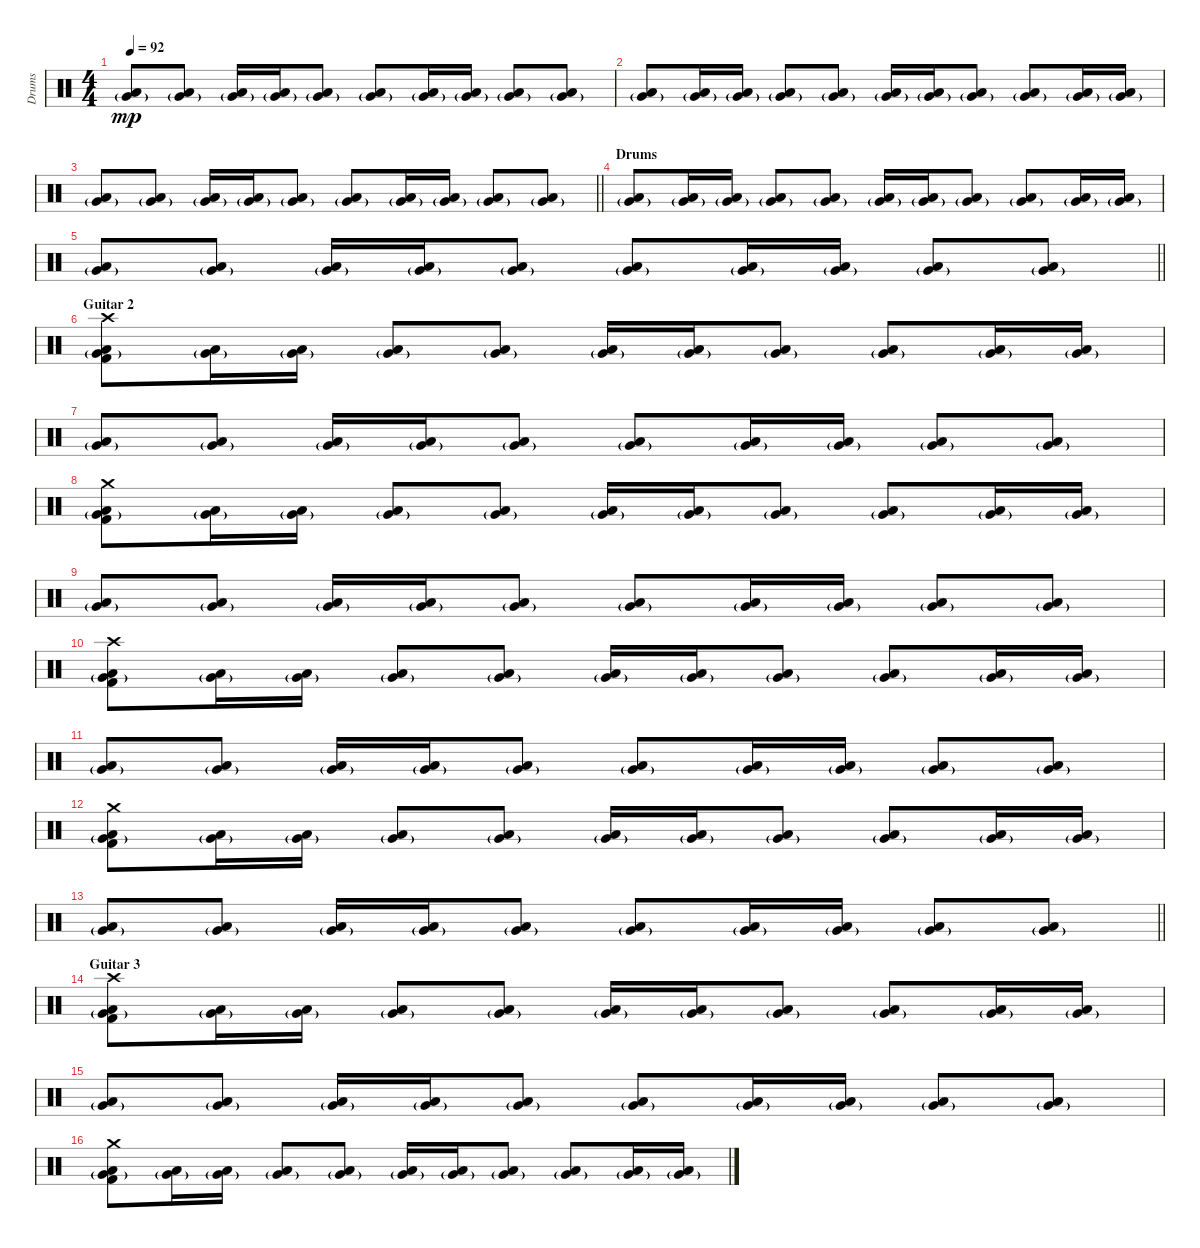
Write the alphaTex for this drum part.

\track ("Drums" "Drums") {instrument percussion}
\staff {score}
\articulation defaults
\ts (4 4)
\tempo 92
\clef neutral
\ks c
("Very Low Tom (hit)"{g} "Low Floor Tom (hit)").8{dy mp} ("Very Low Tom (hit)"{g} "Low Floor Tom (hit)").8 ("Very Low Tom (hit)"{g} "Low Floor Tom (hit)").16 ("Very Low Tom (hit)"{g} "Low Floor Tom (hit)").16 ("Very Low Tom (hit)"{g} "Low Floor Tom (hit)").8 ("Very Low Tom (hit)"{g} "Low Floor Tom (hit)").8 ("Very Low Tom (hit)"{g} "Low Floor Tom (hit)").16 ("Very Low Tom (hit)"{g} "Low Floor Tom (hit)").16 ("Very Low Tom (hit)"{g} "Low Floor Tom (hit)").8 ("Very Low Tom (hit)"{g} "Low Floor Tom (hit)").8 |
("Very Low Tom (hit)"{g} "Low Floor Tom (hit)").8 ("Very Low Tom (hit)"{g} "Low Floor Tom (hit)").16 ("Very Low Tom (hit)"{g} "Low Floor Tom (hit)").16 ("Very Low Tom (hit)"{g} "Low Floor Tom (hit)").8 ("Very Low Tom (hit)"{g} "Low Floor Tom (hit)").8 ("Very Low Tom (hit)"{g} "Low Floor Tom (hit)").16 ("Very Low Tom (hit)"{g} "Low Floor Tom (hit)").16 ("Very Low Tom (hit)"{g} "Low Floor Tom (hit)").8 ("Very Low Tom (hit)"{g} "Low Floor Tom (hit)").8 ("Very Low Tom (hit)"{g} "Low Floor Tom (hit)").16 ("Very Low Tom (hit)"{g} "Low Floor Tom (hit)").16 |
\barLineRight lightlight
("Very Low Tom (hit)"{g} "Low Floor Tom (hit)").8 ("Very Low Tom (hit)"{g} "Low Floor Tom (hit)").8 ("Very Low Tom (hit)"{g} "Low Floor Tom (hit)").16 ("Very Low Tom (hit)"{g} "Low Floor Tom (hit)").16 ("Very Low Tom (hit)"{g} "Low Floor Tom (hit)").8 ("Very Low Tom (hit)"{g} "Low Floor Tom (hit)").8 ("Very Low Tom (hit)"{g} "Low Floor Tom (hit)").16 ("Very Low Tom (hit)"{g} "Low Floor Tom (hit)").16 ("Very Low Tom (hit)"{g} "Low Floor Tom (hit)").8 ("Very Low Tom (hit)"{g} "Low Floor Tom (hit)").8 |
\section ("" "Drums")
("Very Low Tom (hit)"{g} "Low Floor Tom (hit)").8 ("Very Low Tom (hit)"{g} "Low Floor Tom (hit)").16 ("Very Low Tom (hit)"{g} "Low Floor Tom (hit)").16 ("Very Low Tom (hit)"{g} "Low Floor Tom (hit)").8 ("Very Low Tom (hit)"{g} "Low Floor Tom (hit)").8 ("Very Low Tom (hit)"{g} "Low Floor Tom (hit)").16 ("Very Low Tom (hit)"{g} "Low Floor Tom (hit)").16 ("Very Low Tom (hit)"{g} "Low Floor Tom (hit)").8 ("Very Low Tom (hit)"{g} "Low Floor Tom (hit)").8 ("Very Low Tom (hit)"{g} "Low Floor Tom (hit)").16 ("Very Low Tom (hit)"{g} "Low Floor Tom (hit)").16 |
\barLineRight lightlight
("Very Low Tom (hit)"{g} "Low Floor Tom (hit)").8 ("Very Low Tom (hit)"{g} "Low Floor Tom (hit)").8 ("Very Low Tom (hit)"{g} "Low Floor Tom (hit)").16 ("Very Low Tom (hit)"{g} "Low Floor Tom (hit)").16 ("Very Low Tom (hit)"{g} "Low Floor Tom (hit)").8 ("Very Low Tom (hit)"{g} "Low Floor Tom (hit)").8 ("Very Low Tom (hit)"{g} "Low Floor Tom (hit)").16 ("Very Low Tom (hit)"{g} "Low Floor Tom (hit)").16 ("Very Low Tom (hit)"{g} "Low Floor Tom (hit)").8 ("Very Low Tom (hit)"{g} "Low Floor Tom (hit)").8 |
\section ("" "Guitar 2")
("Kick (hit) 2" "Crash high (hit)" "Very Low Tom (hit)"{g} "Low Floor Tom (hit)").8 ("Very Low Tom (hit)"{g} "Low Floor Tom (hit)").16 ("Very Low Tom (hit)"{g} "Low Floor Tom (hit)").16 ("Very Low Tom (hit)"{g} "Low Floor Tom (hit)").8 ("Very Low Tom (hit)"{g} "Low Floor Tom (hit)").8 ("Very Low Tom (hit)"{g} "Low Floor Tom (hit)").16 ("Very Low Tom (hit)"{g} "Low Floor Tom (hit)").16 ("Very Low Tom (hit)"{g} "Low Floor Tom (hit)").8 ("Very Low Tom (hit)"{g} "Low Floor Tom (hit)").8 ("Very Low Tom (hit)"{g} "Low Floor Tom (hit)").16 ("Very Low Tom (hit)"{g} "Low Floor Tom (hit)").16 |
("Very Low Tom (hit)"{g} "Low Floor Tom (hit)").8 ("Very Low Tom (hit)"{g} "Low Floor Tom (hit)").8 ("Very Low Tom (hit)"{g} "Low Floor Tom (hit)").16 ("Very Low Tom (hit)"{g} "Low Floor Tom (hit)").16 ("Very Low Tom (hit)"{g} "Low Floor Tom (hit)").8 ("Very Low Tom (hit)"{g} "Low Floor Tom (hit)").8 ("Very Low Tom (hit)"{g} "Low Floor Tom (hit)").16 ("Very Low Tom (hit)"{g} "Low Floor Tom (hit)").16 ("Very Low Tom (hit)"{g} "Low Floor Tom (hit)").8 ("Very Low Tom (hit)"{g} "Low Floor Tom (hit)").8 |
("Kick (hit) 2" "Crash medium (hit)" "Very Low Tom (hit)"{g} "Low Floor Tom (hit)").8 ("Very Low Tom (hit)"{g} "Low Floor Tom (hit)").16 ("Very Low Tom (hit)"{g} "Low Floor Tom (hit)").16 ("Very Low Tom (hit)"{g} "Low Floor Tom (hit)").8 ("Very Low Tom (hit)"{g} "Low Floor Tom (hit)").8 ("Very Low Tom (hit)"{g} "Low Floor Tom (hit)").16 ("Very Low Tom (hit)"{g} "Low Floor Tom (hit)").16 ("Very Low Tom (hit)"{g} "Low Floor Tom (hit)").8 ("Very Low Tom (hit)"{g} "Low Floor Tom (hit)").8 ("Very Low Tom (hit)"{g} "Low Floor Tom (hit)").16 ("Very Low Tom (hit)"{g} "Low Floor Tom (hit)").16 |
("Very Low Tom (hit)"{g} "Low Floor Tom (hit)").8 ("Very Low Tom (hit)"{g} "Low Floor Tom (hit)").8 ("Very Low Tom (hit)"{g} "Low Floor Tom (hit)").16 ("Very Low Tom (hit)"{g} "Low Floor Tom (hit)").16 ("Very Low Tom (hit)"{g} "Low Floor Tom (hit)").8 ("Very Low Tom (hit)"{g} "Low Floor Tom (hit)").8 ("Very Low Tom (hit)"{g} "Low Floor Tom (hit)").16 ("Very Low Tom (hit)"{g} "Low Floor Tom (hit)").16 ("Very Low Tom (hit)"{g} "Low Floor Tom (hit)").8 ("Very Low Tom (hit)"{g} "Low Floor Tom (hit)").8 |
("Kick (hit) 2" "Crash high (hit)" "Very Low Tom (hit)"{g} "Low Floor Tom (hit)").8 ("Very Low Tom (hit)"{g} "Low Floor Tom (hit)").16 ("Very Low Tom (hit)"{g} "Low Floor Tom (hit)").16 ("Very Low Tom (hit)"{g} "Low Floor Tom (hit)").8 ("Very Low Tom (hit)"{g} "Low Floor Tom (hit)").8 ("Very Low Tom (hit)"{g} "Low Floor Tom (hit)").16 ("Very Low Tom (hit)"{g} "Low Floor Tom (hit)").16 ("Very Low Tom (hit)"{g} "Low Floor Tom (hit)").8 ("Very Low Tom (hit)"{g} "Low Floor Tom (hit)").8 ("Very Low Tom (hit)"{g} "Low Floor Tom (hit)").16 ("Very Low Tom (hit)"{g} "Low Floor Tom (hit)").16 |
("Very Low Tom (hit)"{g} "Low Floor Tom (hit)").8 ("Very Low Tom (hit)"{g} "Low Floor Tom (hit)").8 ("Very Low Tom (hit)"{g} "Low Floor Tom (hit)").16 ("Very Low Tom (hit)"{g} "Low Floor Tom (hit)").16 ("Very Low Tom (hit)"{g} "Low Floor Tom (hit)").8 ("Very Low Tom (hit)"{g} "Low Floor Tom (hit)").8 ("Very Low Tom (hit)"{g} "Low Floor Tom (hit)").16 ("Very Low Tom (hit)"{g} "Low Floor Tom (hit)").16 ("Very Low Tom (hit)"{g} "Low Floor Tom (hit)").8 ("Very Low Tom (hit)"{g} "Low Floor Tom (hit)").8 |
("Kick (hit) 2" "Crash medium (hit)" "Very Low Tom (hit)"{g} "Low Floor Tom (hit)").8 ("Very Low Tom (hit)"{g} "Low Floor Tom (hit)").16 ("Very Low Tom (hit)"{g} "Low Floor Tom (hit)").16 ("Very Low Tom (hit)"{g} "Low Floor Tom (hit)").8 ("Very Low Tom (hit)"{g} "Low Floor Tom (hit)").8 ("Very Low Tom (hit)"{g} "Low Floor Tom (hit)").16 ("Very Low Tom (hit)"{g} "Low Floor Tom (hit)").16 ("Very Low Tom (hit)"{g} "Low Floor Tom (hit)").8 ("Very Low Tom (hit)"{g} "Low Floor Tom (hit)").8 ("Very Low Tom (hit)"{g} "Low Floor Tom (hit)").16 ("Very Low Tom (hit)"{g} "Low Floor Tom (hit)").16 |
\barLineRight lightlight
("Very Low Tom (hit)"{g} "Low Floor Tom (hit)").8 ("Very Low Tom (hit)"{g} "Low Floor Tom (hit)").8 ("Very Low Tom (hit)"{g} "Low Floor Tom (hit)").16 ("Very Low Tom (hit)"{g} "Low Floor Tom (hit)").16 ("Very Low Tom (hit)"{g} "Low Floor Tom (hit)").8 ("Very Low Tom (hit)"{g} "Low Floor Tom (hit)").8 ("Very Low Tom (hit)"{g} "Low Floor Tom (hit)").16 ("Very Low Tom (hit)"{g} "Low Floor Tom (hit)").16 ("Very Low Tom (hit)"{g} "Low Floor Tom (hit)").8 ("Very Low Tom (hit)"{g} "Low Floor Tom (hit)").8 |
\section ("" "Guitar 3")
("Kick (hit) 2" "Crash high (hit)" "Very Low Tom (hit)"{g} "Low Floor Tom (hit)").8 ("Very Low Tom (hit)"{g} "Low Floor Tom (hit)").16 ("Very Low Tom (hit)"{g} "Low Floor Tom (hit)").16 ("Very Low Tom (hit)"{g} "Low Floor Tom (hit)").8 ("Very Low Tom (hit)"{g} "Low Floor Tom (hit)").8 ("Very Low Tom (hit)"{g} "Low Floor Tom (hit)").16 ("Very Low Tom (hit)"{g} "Low Floor Tom (hit)").16 ("Very Low Tom (hit)"{g} "Low Floor Tom (hit)").8 ("Very Low Tom (hit)"{g} "Low Floor Tom (hit)").8 ("Very Low Tom (hit)"{g} "Low Floor Tom (hit)").16 ("Very Low Tom (hit)"{g} "Low Floor Tom (hit)").16 |
("Very Low Tom (hit)"{g} "Low Floor Tom (hit)").8 ("Very Low Tom (hit)"{g} "Low Floor Tom (hit)").8 ("Very Low Tom (hit)"{g} "Low Floor Tom (hit)").16 ("Very Low Tom (hit)"{g} "Low Floor Tom (hit)").16 ("Very Low Tom (hit)"{g} "Low Floor Tom (hit)").8 ("Very Low Tom (hit)"{g} "Low Floor Tom (hit)").8 ("Very Low Tom (hit)"{g} "Low Floor Tom (hit)").16 ("Very Low Tom (hit)"{g} "Low Floor Tom (hit)").16 ("Very Low Tom (hit)"{g} "Low Floor Tom (hit)").8 ("Very Low Tom (hit)"{g} "Low Floor Tom (hit)").8 |
("Kick (hit) 2" "Crash medium (hit)" "Very Low Tom (hit)"{g} "Low Floor Tom (hit)").8 ("Very Low Tom (hit)"{g} "Low Floor Tom (hit)").16 ("Very Low Tom (hit)"{g} "Low Floor Tom (hit)").16 ("Very Low Tom (hit)"{g} "Low Floor Tom (hit)").8 ("Very Low Tom (hit)"{g} "Low Floor Tom (hit)").8 ("Very Low Tom (hit)"{g} "Low Floor Tom (hit)").16 ("Very Low Tom (hit)"{g} "Low Floor Tom (hit)").16 ("Very Low Tom (hit)"{g} "Low Floor Tom (hit)").8 ("Very Low Tom (hit)"{g} "Low Floor Tom (hit)").8 ("Very Low Tom (hit)"{g} "Low Floor Tom (hit)").16 ("Very Low Tom (hit)"{g} "Low Floor Tom (hit)").16
